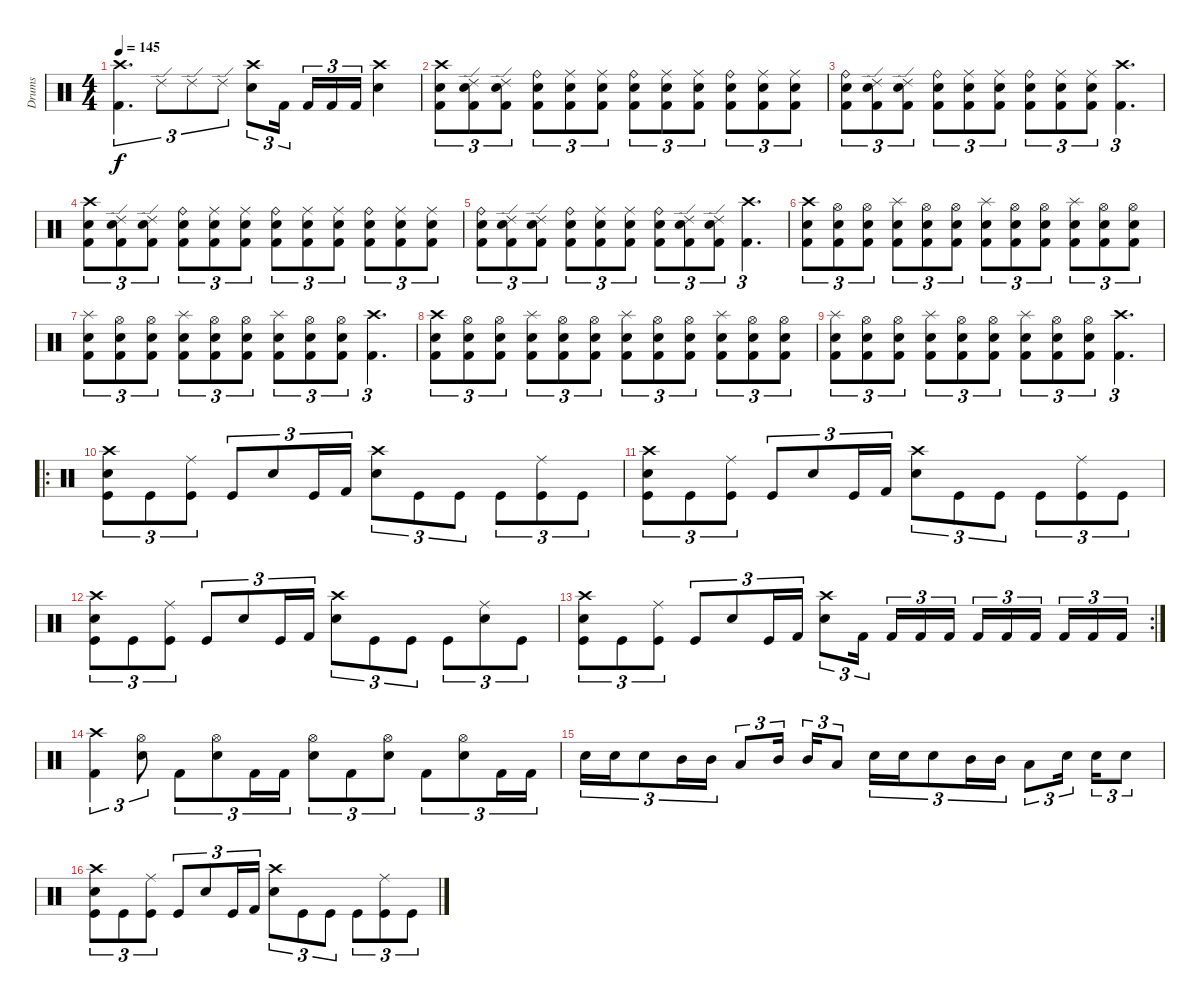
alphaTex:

\track ("Drums" "Drums") {instrument percussion}
\staff {score}
\articulation defaults
\ts (4 4)
\tempo 145
\clef neutral
\ks c
("Crash high (hit)" "Kick (hit) 2").4{d tu (3 2) dy f} "Ride (edge) 2".8{tu (3 2)} "Ride (edge) 2".8{tu (3 2)} "Ride (edge) 2".8{tu (3 2)} ("Snare (hit) 2" "Crash high (hit)").8{tu (3 2)} "Kick (hit) 2".16{tu (3 2) beam splitsecondary} "Kick (hit) 2".16{tu (3 2)} "Kick (hit) 2".16{tu (3 2)} "Kick (hit) 2".16{tu (3 2)} ("Snare (hit) 2" "Crash high (hit)").4 |
("Snare (hit) 2" "Crash high (hit)" "Kick (hit) 2").8{tu (3 2)} ("Snare (hit) 2" "Ride (edge) 2" "Kick (hit) 2").8{tu (3 2)} ("Snare (hit) 2" "Ride (edge) 2" "Kick (hit) 2").8{tu (3 2)} ("Snare (hit) 2" "Ride (bell)" "Kick (hit) 2").8{tu (3 2)} ("Snare (hit) 2" "Ride (middle)" "Kick (hit) 2").8{tu (3 2)} ("Snare (hit) 2" "Ride (middle)" "Kick (hit) 2").8{tu (3 2)} ("Snare (hit) 2" "Ride (bell)" "Kick (hit) 2").8{tu (3 2)} ("Snare (hit) 2" "Ride (middle)" "Kick (hit) 2").8{tu (3 2)} ("Snare (hit) 2" "Ride (middle)" "Kick (hit) 2").8{tu (3 2)} ("Snare (hit) 2" "Ride (bell)" "Kick (hit) 2").8{tu (3 2)} ("Snare (hit) 2" "Ride (middle)" "Kick (hit) 2").8{tu (3 2)} ("Snare (hit) 2" "Ride (middle)" "Kick (hit) 2").8{tu (3 2)} |
("Snare (hit) 2" "Ride (bell)" "Kick (hit) 2").8{tu (3 2)} ("Snare (hit) 2" "Ride (edge) 2" "Kick (hit) 2").8{tu (3 2)} ("Snare (hit) 2" "Ride (edge) 2" "Kick (hit) 2").8{tu (3 2)} ("Snare (hit) 2" "Ride (bell)" "Kick (hit) 2").8{tu (3 2)} ("Snare (hit) 2" "Ride (middle)" "Kick (hit) 2").8{tu (3 2)} ("Snare (hit) 2" "Ride (middle)" "Kick (hit) 2").8{tu (3 2)} ("Snare (hit) 2" "Ride (bell)" "Kick (hit) 2").8{tu (3 2)} ("Snare (hit) 2" "Ride (middle)" "Kick (hit) 2").8{tu (3 2)} ("Snare (hit) 2" "Ride (middle)" "Kick (hit) 2").8{tu (3 2)} ("Crash high (hit)" "Kick (hit) 2").4{d tu (3 2)} |
("Snare (hit) 2" "Crash high (hit)" "Kick (hit) 2").8{tu (3 2)} ("Snare (hit) 2" "Ride (edge) 2" "Kick (hit) 2").8{tu (3 2)} ("Snare (hit) 2" "Ride (edge) 2" "Kick (hit) 2").8{tu (3 2)} ("Snare (hit) 2" "Ride (bell)" "Kick (hit) 2").8{tu (3 2)} ("Snare (hit) 2" "Ride (middle)" "Kick (hit) 2").8{tu (3 2)} ("Snare (hit) 2" "Ride (middle)" "Kick (hit) 2").8{tu (3 2)} ("Snare (hit) 2" "Ride (bell)" "Kick (hit) 2").8{tu (3 2)} ("Snare (hit) 2" "Ride (middle)" "Kick (hit) 2").8{tu (3 2)} ("Snare (hit) 2" "Ride (middle)" "Kick (hit) 2").8{tu (3 2)} ("Snare (hit) 2" "Ride (bell)" "Kick (hit) 2").8{tu (3 2)} ("Snare (hit) 2" "Ride (middle)" "Kick (hit) 2").8{tu (3 2)} ("Snare (hit) 2" "Ride (middle)" "Kick (hit) 2").8{tu (3 2)} |
("Snare (hit) 2" "Ride (bell)" "Kick (hit) 2").8{tu (3 2)} ("Snare (hit) 2" "Ride (edge) 2" "Kick (hit) 2").8{tu (3 2)} ("Snare (hit) 2" "Ride (edge) 2" "Kick (hit) 2").8{tu (3 2)} ("Snare (hit) 2" "Ride (bell)" "Kick (hit) 2").8{tu (3 2)} ("Snare (hit) 2" "Ride (middle)" "Kick (hit) 2").8{tu (3 2)} ("Snare (hit) 2" "Ride (middle)" "Kick (hit) 2").8{tu (3 2)} ("Snare (hit) 2" "Ride (bell)" "Kick (hit) 2").8{tu (3 2)} ("Snare (hit) 2" "Ride (edge) 2" "Kick (hit) 2").8{tu (3 2)} ("Snare (hit) 2" "Ride (edge) 2" "Kick (hit) 2").8{tu (3 2)} ("Crash high (hit)" "Kick (hit) 2").4{d tu (3 2)} |
("Snare (hit) 2" "Crash high (hit)" "Kick (hit) 2").8{tu (3 2)} ("Snare (hit) 2" "Hi-Hat (open)" "Kick (hit) 2").8{tu (3 2)} ("Snare (hit) 2" "Hi-Hat (open)" "Kick (hit) 2").8{tu (3 2)} ("Snare (hit) 2" "Splash (hit)" "Kick (hit) 2").8{tu (3 2)} ("Snare (hit) 2" "Hi-Hat (open)" "Kick (hit) 2").8{tu (3 2)} ("Snare (hit) 2" "Hi-Hat (open)" "Kick (hit) 2").8{tu (3 2)} ("Snare (hit) 2" "Splash (hit)" "Kick (hit) 2").8{tu (3 2)} ("Snare (hit) 2" "Hi-Hat (open)" "Kick (hit) 2").8{tu (3 2)} ("Snare (hit) 2" "Hi-Hat (open)" "Kick (hit) 2").8{tu (3 2)} ("Snare (hit) 2" "Splash (hit)" "Kick (hit) 2").8{tu (3 2)} ("Snare (hit) 2" "Hi-Hat (open)" "Kick (hit) 2").8{tu (3 2)} ("Snare (hit) 2" "Hi-Hat (open)" "Kick (hit) 2").8{tu (3 2)} |
("Snare (hit) 2" "Splash (hit)" "Kick (hit) 2").8{tu (3 2)} ("Snare (hit) 2" "Hi-Hat (open)" "Kick (hit) 2").8{tu (3 2)} ("Snare (hit) 2" "Hi-Hat (open)" "Kick (hit) 2").8{tu (3 2)} ("Snare (hit) 2" "Splash (hit)" "Kick (hit) 2").8{tu (3 2)} ("Snare (hit) 2" "Hi-Hat (open)" "Kick (hit) 2").8{tu (3 2)} ("Snare (hit) 2" "Hi-Hat (open)" "Kick (hit) 2").8{tu (3 2)} ("Snare (hit) 2" "Splash (hit)" "Kick (hit) 2").8{tu (3 2)} ("Snare (hit) 2" "Hi-Hat (open)" "Kick (hit) 2").8{tu (3 2)} ("Snare (hit) 2" "Hi-Hat (open)" "Kick (hit) 2").8{tu (3 2)} ("Crash high (hit)" "Kick (hit) 2").4{d tu (3 2)} |
("Snare (hit) 2" "Crash high (hit)" "Kick (hit) 2").8{tu (3 2)} ("Snare (hit) 2" "Hi-Hat (open)" "Kick (hit) 2").8{tu (3 2)} ("Snare (hit) 2" "Hi-Hat (open)" "Kick (hit) 2").8{tu (3 2)} ("Snare (hit) 2" "Splash (hit)" "Kick (hit) 2").8{tu (3 2)} ("Snare (hit) 2" "Hi-Hat (open)" "Kick (hit) 2").8{tu (3 2)} ("Snare (hit) 2" "Hi-Hat (open)" "Kick (hit) 2").8{tu (3 2)} ("Snare (hit) 2" "Splash (hit)" "Kick (hit) 2").8{tu (3 2)} ("Snare (hit) 2" "Hi-Hat (open)" "Kick (hit) 2").8{tu (3 2)} ("Snare (hit) 2" "Hi-Hat (open)" "Kick (hit) 2").8{tu (3 2)} ("Snare (hit) 2" "Splash (hit)" "Kick (hit) 2").8{tu (3 2)} ("Snare (hit) 2" "Hi-Hat (open)" "Kick (hit) 2").8{tu (3 2)} ("Snare (hit) 2" "Hi-Hat (open)" "Kick (hit) 2").8{tu (3 2)} |
("Snare (hit) 2" "Splash (hit)" "Kick (hit) 2").8{tu (3 2)} ("Snare (hit) 2" "Hi-Hat (open)" "Kick (hit) 2").8{tu (3 2)} ("Snare (hit) 2" "Hi-Hat (open)" "Kick (hit) 2").8{tu (3 2)} ("Snare (hit) 2" "Splash (hit)" "Kick (hit) 2").8{tu (3 2)} ("Snare (hit) 2" "Hi-Hat (open)" "Kick (hit) 2").8{tu (3 2)} ("Snare (hit) 2" "Hi-Hat (open)" "Kick (hit) 2").8{tu (3 2)} ("Snare (hit) 2" "Splash (hit)" "Kick (hit) 2").8{tu (3 2)} ("Snare (hit) 2" "Hi-Hat (open)" "Kick (hit) 2").8{tu (3 2)} ("Snare (hit) 2" "Hi-Hat (open)" "Kick (hit) 2").8{tu (3 2)} ("Crash high (hit)" "Kick (hit) 2").4{d tu (3 2)} |
\ro
("Snare (hit) 2" "Kick (hit)" "Crash high (hit)").8{tu (3 2)} "Kick (hit)".8{tu (3 2)} ("Kick (hit)" "Ride (middle)").8{tu (3 2)} "Kick (hit)".8{tu (3 2)} "Snare (hit) 2".8{tu (3 2)} "Kick (hit)".16{tu (3 2)} "Kick (hit) 2".16{tu (3 2)} ("Snare (hit) 2" "Crash high (hit)").8{tu (3 2)} "Kick (hit)".8{tu (3 2)} "Kick (hit)".8{tu (3 2)} "Kick (hit)".8{tu (3 2)} ("Kick (hit)" "Ride (middle)").8{tu (3 2)} "Kick (hit)".8{tu (3 2)} |
("Snare (hit) 2" "Kick (hit)" "Crash high (hit)").8{tu (3 2)} "Kick (hit)".8{tu (3 2)} ("Kick (hit)" "Ride (middle)").8{tu (3 2)} "Kick (hit)".8{tu (3 2)} "Snare (hit) 2".8{tu (3 2)} "Kick (hit)".16{tu (3 2)} "Kick (hit) 2".16{tu (3 2)} ("Snare (hit) 2" "Crash high (hit)").8{tu (3 2)} "Kick (hit)".8{tu (3 2)} "Kick (hit)".8{tu (3 2)} "Kick (hit)".8{tu (3 2)} ("Kick (hit)" "Ride (middle)").8{tu (3 2)} "Kick (hit)".8{tu (3 2)} |
("Snare (hit) 2" "Kick (hit)" "Crash high (hit)").8{tu (3 2)} "Kick (hit)".8{tu (3 2)} ("Kick (hit)" "Ride (middle)").8{tu (3 2)} "Kick (hit)".8{tu (3 2)} "Snare (hit) 2".8{tu (3 2)} "Kick (hit)".16{tu (3 2)} "Kick (hit) 2".16{tu (3 2)} ("Snare (hit) 2" "Crash high (hit)").8{tu (3 2)} "Kick (hit)".8{tu (3 2)} "Kick (hit)".8{tu (3 2)} "Kick (hit)".8{tu (3 2)} ("Ride (middle)" "Snare (hit) 2").8{tu (3 2)} "Kick (hit)".8{tu (3 2)} |
\rc 2
("Snare (hit) 2" "Kick (hit)" "Crash high (hit)").8{tu (3 2)} "Kick (hit)".8{tu (3 2)} ("Kick (hit)" "Ride (middle)").8{tu (3 2)} "Kick (hit)".8{tu (3 2)} "Snare (hit) 2".8{tu (3 2)} "Kick (hit)".16{tu (3 2)} "Kick (hit) 2".16{tu (3 2)} ("Snare (hit) 2" "Crash high (hit)").8{tu (3 2)} "Kick (hit) 2".16{tu (3 2) beam splitsecondary} "Kick (hit) 2".16{tu (3 2)} "Kick (hit) 2".16{tu (3 2)} "Kick (hit) 2".16{tu (3 2)} "Kick (hit) 2".16{tu (3 2)} "Kick (hit) 2".16{tu (3 2)} "Kick (hit) 2".16{tu (3 2) beam splitsecondary} "Kick (hit) 2".16{tu (3 2)} "Kick (hit) 2".16{tu (3 2)} "Kick (hit) 2".16{tu (3 2)} |
("Kick (hit) 2" "Crash high (hit)").4{tu (3 2)} ("Hi-Hat (open)" "Snare (hit) 2").8{tu (3 2)} "Kick (hit) 2".8{tu (3 2)} ("Snare (hit) 2" "Hi-Hat (open)").8{tu (3 2)} "Kick (hit) 2".16{tu (3 2)} "Kick (hit) 2".16{tu (3 2)} ("Snare (hit) 2" "Hi-Hat (open)").8{tu (3 2)} "Kick (hit) 2".8{tu (3 2)} ("Snare (hit) 2" "Hi-Hat (open)").8{tu (3 2)} "Kick (hit) 2".8{tu (3 2)} ("Snare (hit) 2" "Hi-Hat (open)").8{tu (3 2)} "Kick (hit) 2".16{tu (3 2)} "Kick (hit) 2".16{tu (3 2)} |
"Snare (hit) 2".16{tu (3 2)} "Snare (hit) 2".16{tu (3 2)} "Snare (hit) 2".8{tu (3 2)} "Mid Tom (hit)".16{tu (3 2)} "Mid Tom (hit)".16{tu (3 2)} "Low Tom (hit)".8{tu (3 2)} "Mid Tom (hit)".16{tu (3 2) beam splitsecondary} "Mid Tom (hit)".16{tu (3 2)} "Low Tom (hit)".8{tu (3 2)} "Snare (hit) 2".16{tu (3 2)} "Snare (hit) 2".16{tu (3 2)} "Snare (hit) 2".8{tu (3 2)} "Mid Tom (hit)".16{tu (3 2)} "Mid Tom (hit)".16{tu (3 2)} "Low Tom (hit)".8{tu (3 2)} "Snare (hit) 2".16{tu (3 2) beam splitsecondary} "Snare (hit) 2".16{tu (3 2)} "Snare (hit) 2".8{tu (3 2)} |
("Snare (hit) 2" "Kick (hit)" "Crash high (hit)").8{tu (3 2)} "Kick (hit)".8{tu (3 2)} ("Kick (hit)" "Ride (middle)").8{tu (3 2)} "Kick (hit)".8{tu (3 2)} "Snare (hit) 2".8{tu (3 2)} "Kick (hit)".16{tu (3 2)} "Kick (hit) 2".16{tu (3 2)} ("Snare (hit) 2" "Crash high (hit)").8{tu (3 2)} "Kick (hit)".8{tu (3 2)} "Kick (hit)".8{tu (3 2)} "Kick (hit)".8{tu (3 2)} ("Kick (hit)" "Ride (middle)").8{tu (3 2)} "Kick (hit)".8{tu (3 2)}
